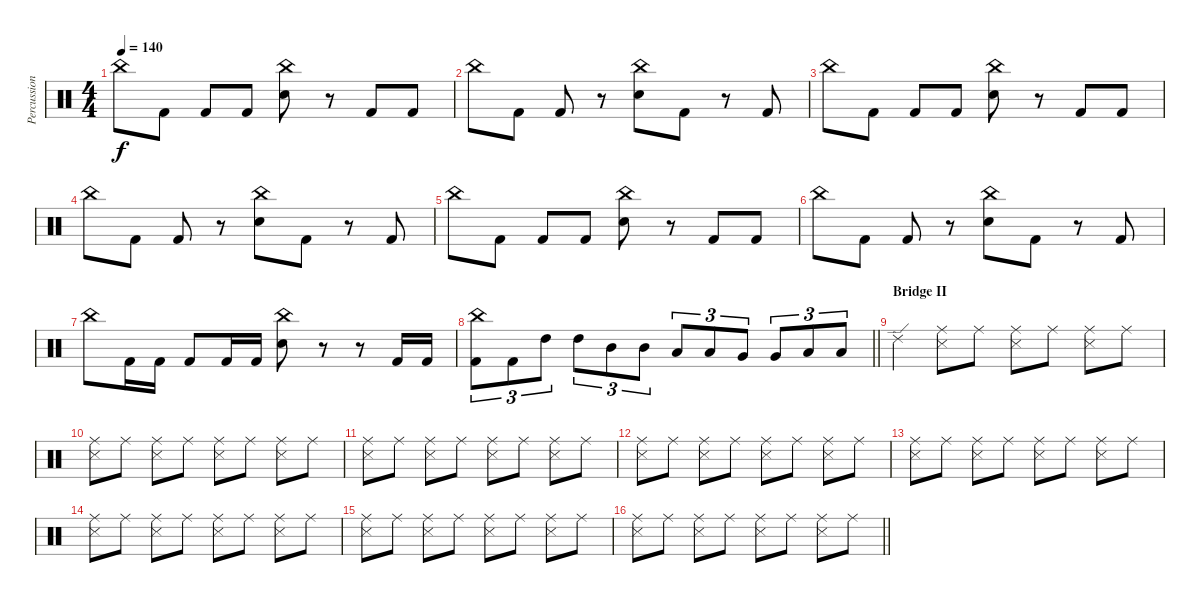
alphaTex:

\track ("Percussion" "Percussion") {instrument percussion}
\staff {score}
\articulation defaults
\ts (4 4)
\tempo 140
\clef neutral
\ks c "China (hit)".8{dy f} "Kick (hit) 2".8 "Kick (hit) 2".8 "Kick (hit) 2".8
("China (hit)" "Snare (hit) 2").8 r.8 "Kick (hit) 2".8 "Kick (hit) 2".8 |
"China (hit)".8 "Kick (hit) 2".8 "Kick (hit) 2".8 r.8 ("China (hit)" "Snare (hit) 2").8 "Kick (hit) 2".8 r.8 "Kick (hit) 2".8 |
"China (hit)".8 "Kick (hit) 2".8 "Kick (hit) 2".8 "Kick (hit) 2".8 ("China (hit)" "Snare (hit) 2").8 r.8 "Kick (hit) 2".8 "Kick (hit) 2".8 |
"China (hit)".8 "Kick (hit) 2".8 "Kick (hit) 2".8 r.8 ("China (hit)" "Snare (hit) 2").8 "Kick (hit) 2".8 r.8 "Kick (hit) 2".8 |
"China (hit)".8 "Kick (hit) 2".8 "Kick (hit) 2".8 "Kick (hit) 2".8 ("China (hit)" "Snare (hit) 2").8 r.8 "Kick (hit) 2".8 "Kick (hit) 2".8 |
"China (hit)".8 "Kick (hit) 2".8 "Kick (hit) 2".8 r.8 ("China (hit)" "Snare (hit) 2").8 "Kick (hit) 2".8 r.8 "Kick (hit) 2".8 |
"China (hit)".8 "Kick (hit) 2".16 "Kick (hit) 2".16 "Kick (hit) 2".8 "Kick (hit) 2".16 "Kick (hit) 2".16 ("China (hit)" "Snare (hit) 2").8 r.8 r.8 "Kick (hit) 2".16 "Kick (hit) 2".16 |
\barLineRight lightlight
("China (hit)" "Kick (hit) 2").8{tu (3 2)} "Kick (hit) 2".8{tu (3 2)} "High Tom (hit)".8{tu (3 2)} "High Tom (hit)".8{tu (3 2)} "Mid Tom (hit)".8{tu (3 2)} "Mid Tom (hit)".8{tu (3 2)} "Low Tom (hit)".8{tu (3 2)} "Low Tom (hit)".8{tu (3 2)} "Very Low Tom (hit)".8{tu (3 2)} "Very Low Tom (hit)".8{tu (3 2)} "Low Floor Tom (hit)".8{tu (3 2)} "Low Floor Tom (hit)".8{tu (3 2)} |
\section ("" "Bridge II")
"Ride (edge) 2".4{volume 11} ("Ride (middle)" "Snare (side stick) 3").8 "Ride (middle)".8 ("Ride (middle)" "Snare (side stick) 3").8 "Ride (middle)".8 ("Ride (middle)" "Snare (side stick) 3").8 "Ride (middle)".8 |
("Ride (middle)" "Snare (side stick) 3").8 "Ride (middle)".8 ("Ride (middle)" "Snare (side stick) 3").8 "Ride (middle)".8 ("Ride (middle)" "Snare (side stick) 3").8 "Ride (middle)".8 ("Ride (middle)" "Snare (side stick) 3").8 "Ride (middle)".8 |
("Ride (middle)" "Snare (side stick) 3").8 "Ride (middle)".8 ("Ride (middle)" "Snare (side stick) 3").8 "Ride (middle)".8 ("Ride (middle)" "Snare (side stick) 3").8 "Ride (middle)".8 ("Ride (middle)" "Snare (side stick) 3").8 "Ride (middle)".8 |
("Ride (middle)" "Snare (side stick) 3").8 "Ride (middle)".8 ("Ride (middle)" "Snare (side stick) 3").8 "Ride (middle)".8 ("Ride (middle)" "Snare (side stick) 3").8 "Ride (middle)".8 ("Ride (middle)" "Snare (side stick) 3").8 "Ride (middle)".8 |
("Ride (middle)" "Snare (side stick) 3").8 "Ride (middle)".8 ("Ride (middle)" "Snare (side stick) 3").8 "Ride (middle)".8 ("Ride (middle)" "Snare (side stick) 3").8 "Ride (middle)".8 ("Ride (middle)" "Snare (side stick) 3").8 "Ride (middle)".8 |
("Ride (middle)" "Snare (side stick) 3").8 "Ride (middle)".8 ("Ride (middle)" "Snare (side stick) 3").8 "Ride (middle)".8 ("Ride (middle)" "Snare (side stick) 3").8 "Ride (middle)".8 ("Ride (middle)" "Snare (side stick) 3").8 "Ride (middle)".8 |
("Ride (middle)" "Snare (side stick) 3").8 "Ride (middle)".8 ("Ride (middle)" "Snare (side stick) 3").8 "Ride (middle)".8 ("Ride (middle)" "Snare (side stick) 3").8 "Ride (middle)".8 ("Ride (middle)" "Snare (side stick) 3").8 "Ride (middle)".8 |
\barLineRight lightlight
("Ride (middle)" "Snare (side stick) 3").8 "Ride (middle)".8 ("Ride (middle)" "Snare (side stick) 3").8 "Ride (middle)".8 ("Ride (middle)" "Snare (side stick) 3").8 "Ride (middle)".8 ("Ride (middle)" "Snare (side stick) 3").8 "Ride (middle)".8
